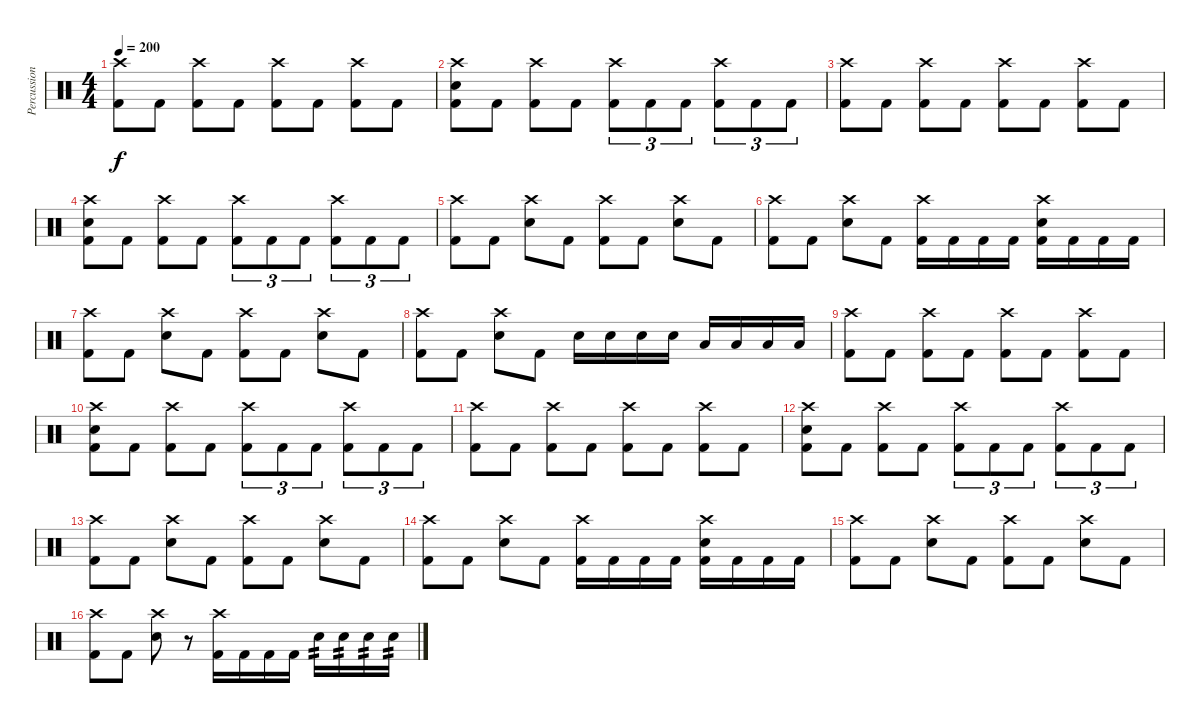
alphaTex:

\track ("Percussion" "Percussion") {instrument percussion}
\staff {score}
\articulation defaults
\ts (4 4)
\tempo 200
\clef neutral
\ks c
("Crash high (hit)" "Kick (hit) 2").8{dy f} "Kick (hit) 2".8 ("Crash high (hit)" "Kick (hit) 2").8 "Kick (hit) 2".8 ("Crash high (hit)" "Kick (hit) 2").8 "Kick (hit) 2".8 ("Crash high (hit)" "Kick (hit) 2").8 "Kick (hit) 2".8 |
("Crash high (hit)" "Electric Snare (hit)" "Kick (hit) 2").8 "Kick (hit) 2".8 ("Crash high (hit)" "Kick (hit) 2").8 "Kick (hit) 2".8 ("Crash high (hit)" "Kick (hit) 2").8{tu (3 2)} "Kick (hit) 2".8{tu (3 2)} "Kick (hit) 2".8{tu (3 2)} ("Crash high (hit)" "Kick (hit) 2").8{tu (3 2)} "Kick (hit) 2".8{tu (3 2)} "Kick (hit) 2".8{tu (3 2)} |
("Crash high (hit)" "Kick (hit) 2").8 "Kick (hit) 2".8 ("Crash high (hit)" "Kick (hit) 2").8 "Kick (hit) 2".8 ("Crash high (hit)" "Kick (hit) 2").8 "Kick (hit) 2".8 ("Crash high (hit)" "Kick (hit) 2").8 "Kick (hit) 2".8 |
("Crash high (hit)" "Electric Snare (hit)" "Kick (hit) 2").8 "Kick (hit) 2".8 ("Crash high (hit)" "Kick (hit) 2").8 "Kick (hit) 2".8 ("Crash high (hit)" "Kick (hit) 2").8{tu (3 2)} "Kick (hit) 2".8{tu (3 2)} "Kick (hit) 2".8{tu (3 2)} ("Crash high (hit)" "Kick (hit) 2").8{tu (3 2)} "Kick (hit) 2".8{tu (3 2)} "Kick (hit) 2".8{tu (3 2)} |
("Crash high (hit)" "Kick (hit) 2").8 "Kick (hit) 2".8 ("Crash high (hit)" "Electric Snare (hit)").8 "Kick (hit) 2".8 ("Crash high (hit)" "Kick (hit) 2").8 "Kick (hit) 2".8 ("Crash high (hit)" "Electric Snare (hit)").8 "Kick (hit) 2".8 |
("Crash high (hit)" "Kick (hit) 2").8 "Kick (hit) 2".8 ("Crash high (hit)" "Electric Snare (hit)").8 "Kick (hit) 2".8 ("Crash high (hit)" "Kick (hit) 2").16 "Kick (hit) 2".16 "Kick (hit) 2".16 "Kick (hit) 2".16 ("Crash high (hit)" "Electric Snare (hit)" "Kick (hit) 2").16 "Kick (hit) 2".16 "Kick (hit) 2".16 "Kick (hit) 2".16 |
("Crash high (hit)" "Kick (hit) 2").8 "Kick (hit) 2".8 ("Crash high (hit)" "Electric Snare (hit)").8 "Kick (hit) 2".8 ("Crash high (hit)" "Kick (hit) 2").8 "Kick (hit) 2".8 ("Crash high (hit)" "Electric Snare (hit)").8 "Kick (hit) 2".8 |
("Crash high (hit)" "Kick (hit) 2").8 "Kick (hit) 2".8 ("Crash high (hit)" "Electric Snare (hit)").8 "Kick (hit) 2".8 "Electric Snare (hit)".16 "Electric Snare (hit)".16 "Electric Snare (hit)".16 "Electric Snare (hit)".16 "Low Tom (hit)".16 "Low Tom (hit)".16 "Low Floor Tom (hit)".16 "Low Floor Tom (hit)".16 |
("Crash high (hit)" "Kick (hit) 2").8 "Kick (hit) 2".8 ("Crash high (hit)" "Kick (hit) 2").8 "Kick (hit) 2".8 ("Crash high (hit)" "Kick (hit) 2").8 "Kick (hit) 2".8 ("Crash high (hit)" "Kick (hit) 2").8 "Kick (hit) 2".8 |
("Crash high (hit)" "Electric Snare (hit)" "Kick (hit) 2").8 "Kick (hit) 2".8 ("Crash high (hit)" "Kick (hit) 2").8 "Kick (hit) 2".8 ("Crash high (hit)" "Kick (hit) 2").8{tu (3 2)} "Kick (hit) 2".8{tu (3 2)} "Kick (hit) 2".8{tu (3 2)} ("Crash high (hit)" "Kick (hit) 2").8{tu (3 2)} "Kick (hit) 2".8{tu (3 2)} "Kick (hit) 2".8{tu (3 2)} |
("Crash high (hit)" "Kick (hit) 2").8 "Kick (hit) 2".8 ("Crash high (hit)" "Kick (hit) 2").8 "Kick (hit) 2".8 ("Crash high (hit)" "Kick (hit) 2").8 "Kick (hit) 2".8 ("Crash high (hit)" "Kick (hit) 2").8 "Kick (hit) 2".8 |
("Crash high (hit)" "Electric Snare (hit)" "Kick (hit) 2").8 "Kick (hit) 2".8 ("Crash high (hit)" "Kick (hit) 2").8 "Kick (hit) 2".8 ("Crash high (hit)" "Kick (hit) 2").8{tu (3 2)} "Kick (hit) 2".8{tu (3 2)} "Kick (hit) 2".8{tu (3 2)} ("Crash high (hit)" "Kick (hit) 2").8{tu (3 2)} "Kick (hit) 2".8{tu (3 2)} "Kick (hit) 2".8{tu (3 2)} |
("Crash high (hit)" "Kick (hit) 2").8 "Kick (hit) 2".8 ("Crash high (hit)" "Electric Snare (hit)").8 "Kick (hit) 2".8 ("Crash high (hit)" "Kick (hit) 2").8 "Kick (hit) 2".8 ("Crash high (hit)" "Electric Snare (hit)").8 "Kick (hit) 2".8 |
("Crash high (hit)" "Kick (hit) 2").8 "Kick (hit) 2".8 ("Crash high (hit)" "Electric Snare (hit)").8 "Kick (hit) 2".8 ("Crash high (hit)" "Kick (hit) 2").16 "Kick (hit) 2".16 "Kick (hit) 2".16 "Kick (hit) 2".16 ("Crash high (hit)" "Electric Snare (hit)" "Kick (hit) 2").16 "Kick (hit) 2".16 "Kick (hit) 2".16 "Kick (hit) 2".16 |
("Crash high (hit)" "Kick (hit) 2").8 "Kick (hit) 2".8 ("Crash high (hit)" "Electric Snare (hit)").8 "Kick (hit) 2".8 ("Crash high (hit)" "Kick (hit) 2").8 "Kick (hit) 2".8 ("Crash high (hit)" "Electric Snare (hit)").8 "Kick (hit) 2".8 |
("Crash high (hit)" "Kick (hit) 2").8 "Kick (hit) 2".8 ("Crash high (hit)" "Electric Snare (hit)").8 r.8 ("Crash high (hit)" "Kick (hit) 2").16 "Kick (hit) 2".16 "Kick (hit) 2".16 "Kick (hit) 2".16 "Electric Snare (hit)".16{tp 2} "Electric Snare (hit)".16{tp 2} "Electric Snare (hit)".16{tp 2} "Electric Snare (hit)".16{tp 2}
